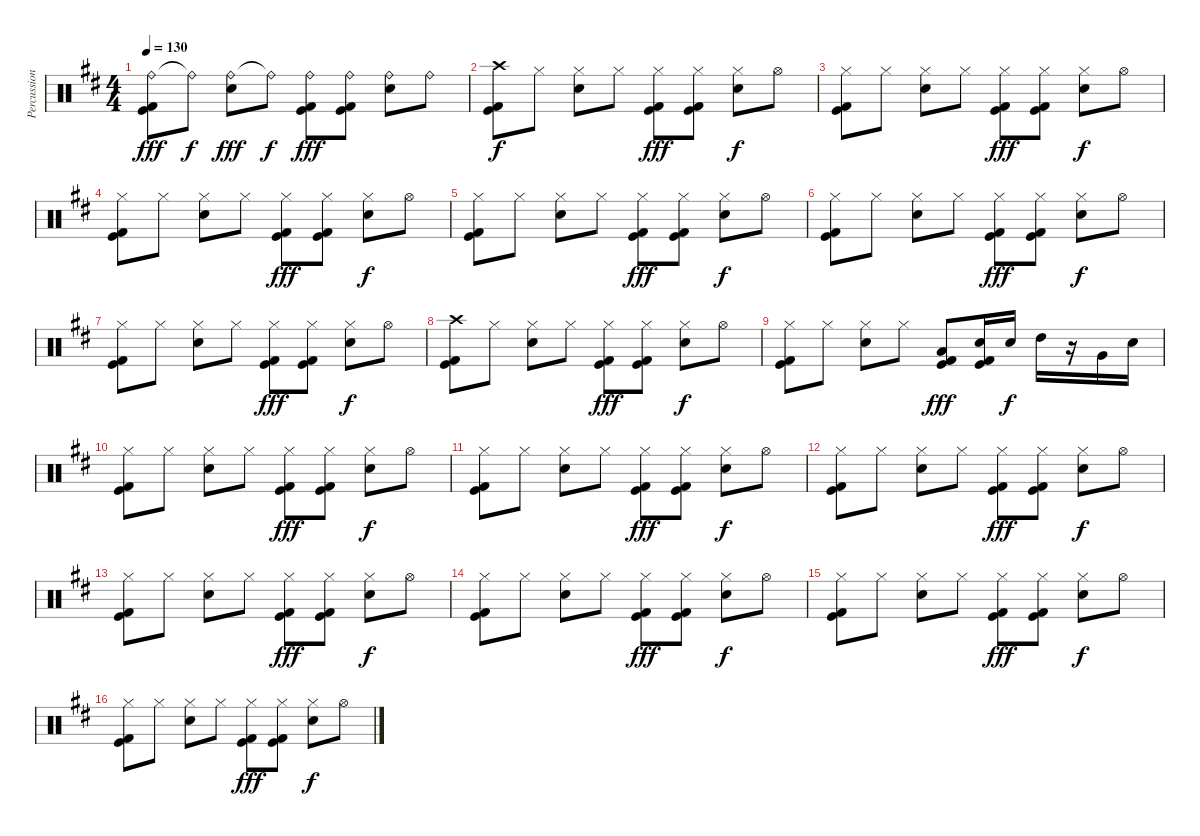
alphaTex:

\track ("Percussion" "Percussion") {instrument percussion}
\staff {score}
\articulation defaults
\ts (4 4)
\tempo 130
\clef neutral
\ks d
("Ride (bell)" "Kick (hit)" "Kick (hit) 2").8{dy fff} "Ride (bell)"{t}.8{dy f} ("Ride (bell)" "Electric Snare (hit)").8{dy fff} "Ride (bell)"{t}.8{dy f} ("Ride (bell)" "Kick (hit)" "Kick (hit) 2").8{dy fff} ("Ride (bell)" "Kick (hit)" "Kick (hit) 2").8 ("Ride (bell)" "Electric Snare (hit)").8 "Ride (bell)".8 |
("Crash high (hit)" "Kick (hit)" "Kick (hit) 2").8{dy f} "Hi-Hat (closed)".8 ("Hi-Hat (closed)" "Electric Snare (hit)").8 "Hi-Hat (closed)".8 ("Hi-Hat (closed)" "Kick (hit)" "Kick (hit) 2").8{dy fff} ("Hi-Hat (closed)" "Kick (hit)" "Kick (hit) 2").8 ("Hi-Hat (closed)" "Electric Snare (hit)").8{dy f} "Hi-Hat (open)".8 |
("Hi-Hat (closed)" "Kick (hit)" "Kick (hit) 2").8 "Hi-Hat (closed)".8 ("Hi-Hat (closed)" "Electric Snare (hit)").8 "Hi-Hat (closed)".8 ("Hi-Hat (closed)" "Kick (hit)" "Kick (hit) 2").8{dy fff} ("Hi-Hat (closed)" "Kick (hit)" "Kick (hit) 2").8 ("Hi-Hat (closed)" "Electric Snare (hit)").8{dy f} "Hi-Hat (open)".8 |
("Hi-Hat (closed)" "Kick (hit)" "Kick (hit) 2").8 "Hi-Hat (closed)".8 ("Hi-Hat (closed)" "Electric Snare (hit)").8 "Hi-Hat (closed)".8 ("Hi-Hat (closed)" "Kick (hit)" "Kick (hit) 2").8{dy fff} ("Hi-Hat (closed)" "Kick (hit)" "Kick (hit) 2").8 ("Hi-Hat (closed)" "Electric Snare (hit)").8{dy f} "Hi-Hat (open)".8 |
("Hi-Hat (closed)" "Kick (hit)" "Kick (hit) 2").8 "Hi-Hat (closed)".8 ("Hi-Hat (closed)" "Electric Snare (hit)").8 "Hi-Hat (closed)".8 ("Hi-Hat (closed)" "Kick (hit)" "Kick (hit) 2").8{dy fff} ("Hi-Hat (closed)" "Kick (hit)" "Kick (hit) 2").8 ("Hi-Hat (closed)" "Electric Snare (hit)").8{dy f} "Hi-Hat (open)".8 |
("Hi-Hat (closed)" "Kick (hit)" "Kick (hit) 2").8 "Hi-Hat (closed)".8 ("Hi-Hat (closed)" "Electric Snare (hit)").8 "Hi-Hat (closed)".8 ("Hi-Hat (closed)" "Kick (hit)" "Kick (hit) 2").8{dy fff} ("Hi-Hat (closed)" "Kick (hit)" "Kick (hit) 2").8 ("Hi-Hat (closed)" "Electric Snare (hit)").8{dy f} "Hi-Hat (open)".8 |
("Hi-Hat (closed)" "Kick (hit)" "Kick (hit) 2").8 "Hi-Hat (closed)".8 ("Hi-Hat (closed)" "Electric Snare (hit)").8 "Hi-Hat (closed)".8 ("Hi-Hat (closed)" "Kick (hit)" "Kick (hit) 2").8{dy fff} ("Hi-Hat (closed)" "Kick (hit)" "Kick (hit) 2").8 ("Hi-Hat (closed)" "Electric Snare (hit)").8{dy f} "Hi-Hat (open)".8 |
("Crash high (hit)" "Kick (hit)" "Kick (hit) 2").8 "Hi-Hat (closed)".8 ("Hi-Hat (closed)" "Electric Snare (hit)").8 "Hi-Hat (closed)".8 ("Hi-Hat (closed)" "Kick (hit)" "Kick (hit) 2").8{dy fff} ("Hi-Hat (closed)" "Kick (hit)" "Kick (hit) 2").8 ("Hi-Hat (closed)" "Electric Snare (hit)").8{dy f} "Hi-Hat (open)".8 |
("Hi-Hat (closed)" "Kick (hit)" "Kick (hit) 2").8 "Hi-Hat (closed)".8 ("Hi-Hat (closed)" "Electric Snare (hit)").8 "Hi-Hat (closed)".8 ("Low Tom (hit)" "Kick (hit)" "Kick (hit) 2").8{dy fff} ("Electric Snare (hit)" "Kick (hit)" "Kick (hit) 2").16 "Electric Snare (hit)".16{dy f} "High Tom (hit)".16 r.16 "Very Low Tom (hit)".16 "Electric Snare (hit)".16 |
("Hi-Hat (closed)" "Kick (hit)" "Kick (hit) 2").8 "Hi-Hat (closed)".8 ("Hi-Hat (closed)" "Electric Snare (hit)").8 "Hi-Hat (closed)".8 ("Hi-Hat (closed)" "Kick (hit)" "Kick (hit) 2").8{dy fff} ("Hi-Hat (closed)" "Kick (hit)" "Kick (hit) 2").8 ("Hi-Hat (closed)" "Electric Snare (hit)").8{dy f} "Hi-Hat (open)".8 |
("Hi-Hat (closed)" "Kick (hit)" "Kick (hit) 2").8 "Hi-Hat (closed)".8 ("Hi-Hat (closed)" "Electric Snare (hit)").8 "Hi-Hat (closed)".8 ("Hi-Hat (closed)" "Kick (hit)" "Kick (hit) 2").8{dy fff} ("Hi-Hat (closed)" "Kick (hit)" "Kick (hit) 2").8 ("Hi-Hat (closed)" "Electric Snare (hit)").8{dy f} "Hi-Hat (open)".8 |
("Hi-Hat (closed)" "Kick (hit)" "Kick (hit) 2").8 "Hi-Hat (closed)".8 ("Hi-Hat (closed)" "Electric Snare (hit)").8 "Hi-Hat (closed)".8 ("Hi-Hat (closed)" "Kick (hit)" "Kick (hit) 2").8{dy fff} ("Hi-Hat (closed)" "Kick (hit)" "Kick (hit) 2").8 ("Hi-Hat (closed)" "Electric Snare (hit)").8{dy f} "Hi-Hat (open)".8 |
("Hi-Hat (closed)" "Kick (hit)" "Kick (hit) 2").8 "Hi-Hat (closed)".8 ("Hi-Hat (closed)" "Electric Snare (hit)").8 "Hi-Hat (closed)".8 ("Hi-Hat (closed)" "Kick (hit)" "Kick (hit) 2").8{dy fff} ("Hi-Hat (closed)" "Kick (hit)" "Kick (hit) 2").8 ("Hi-Hat (closed)" "Electric Snare (hit)").8{dy f} "Hi-Hat (open)".8 |
("Hi-Hat (closed)" "Kick (hit)" "Kick (hit) 2").8 "Hi-Hat (closed)".8 ("Hi-Hat (closed)" "Electric Snare (hit)").8 "Hi-Hat (closed)".8 ("Hi-Hat (closed)" "Kick (hit)" "Kick (hit) 2").8{dy fff} ("Hi-Hat (closed)" "Kick (hit)" "Kick (hit) 2").8 ("Hi-Hat (closed)" "Electric Snare (hit)").8{dy f} "Hi-Hat (open)".8 |
("Hi-Hat (closed)" "Kick (hit)" "Kick (hit) 2").8 "Hi-Hat (closed)".8 ("Hi-Hat (closed)" "Electric Snare (hit)").8 "Hi-Hat (closed)".8 ("Hi-Hat (closed)" "Kick (hit)" "Kick (hit) 2").8{dy fff} ("Hi-Hat (closed)" "Kick (hit)" "Kick (hit) 2").8 ("Hi-Hat (closed)" "Electric Snare (hit)").8{dy f} "Hi-Hat (open)".8 |
("Hi-Hat (closed)" "Kick (hit)" "Kick (hit) 2").8 "Hi-Hat (closed)".8 ("Hi-Hat (closed)" "Electric Snare (hit)").8 "Hi-Hat (closed)".8 ("Hi-Hat (closed)" "Kick (hit)" "Kick (hit) 2").8{dy fff} ("Hi-Hat (closed)" "Kick (hit)" "Kick (hit) 2").8 ("Hi-Hat (closed)" "Electric Snare (hit)").8{dy f} "Hi-Hat (open)".8
